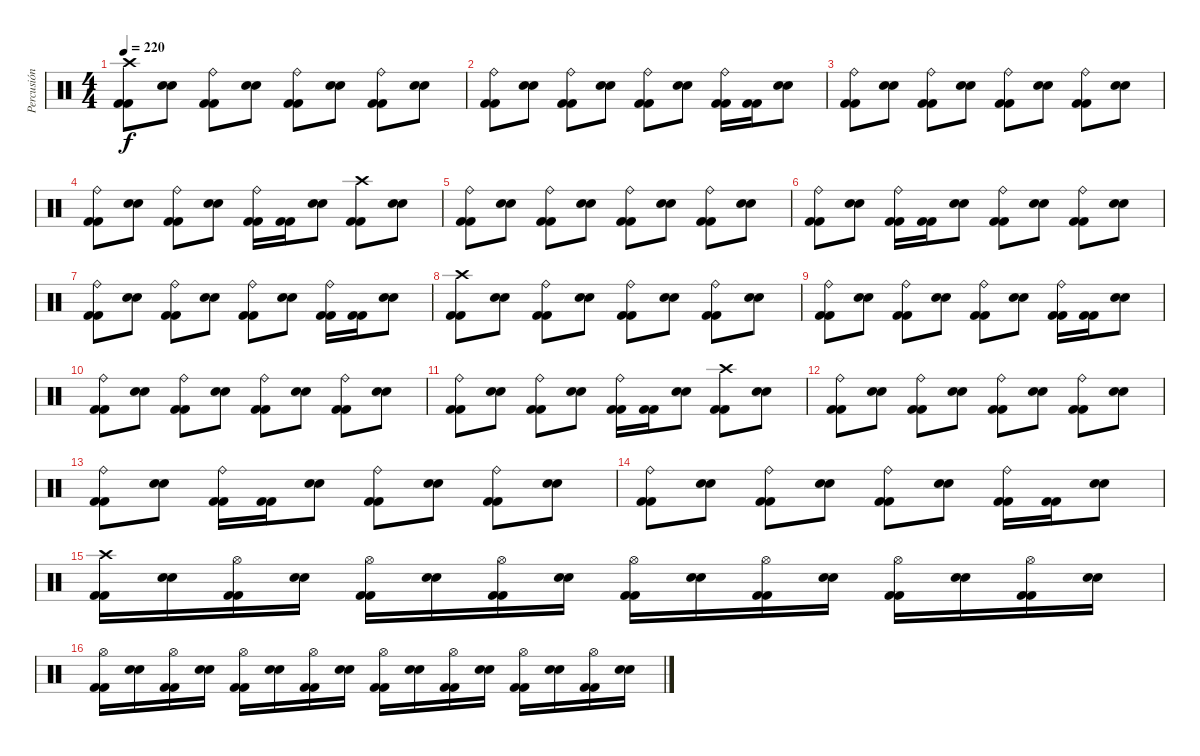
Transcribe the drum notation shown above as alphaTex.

\track ("Percusión" "Percusión") {instrument percussion}
\staff {score}
\articulation defaults
\ts (4 4)
\tempo 220
\clef neutral
\ks c
("Kick (hit) 2" "Kick (hit) 2" "Crash high (hit)").8{dy f} ("Electric Snare (hit)" "Electric Snare (hit)").8 ("Kick (hit) 2" "Kick (hit) 2" "Ride (bell)").8 ("Electric Snare (hit)" "Electric Snare (hit)").8 ("Kick (hit) 2" "Kick (hit) 2" "Ride (bell)").8 ("Electric Snare (hit)" "Electric Snare (hit)").8 ("Kick (hit) 2" "Kick (hit) 2" "Ride (bell)").8 ("Electric Snare (hit)" "Electric Snare (hit)").8 |
("Kick (hit) 2" "Kick (hit) 2" "Ride (bell)").8 ("Electric Snare (hit)" "Electric Snare (hit)").8 ("Kick (hit) 2" "Kick (hit) 2" "Ride (bell)").8 ("Electric Snare (hit)" "Electric Snare (hit)").8 ("Kick (hit) 2" "Kick (hit) 2" "Ride (bell)").8 ("Electric Snare (hit)" "Electric Snare (hit)").8 ("Kick (hit) 2" "Kick (hit) 2" "Ride (bell)").16 ("Kick (hit) 2" "Kick (hit) 2").16 ("Electric Snare (hit)" "Electric Snare (hit)").8 |
("Kick (hit) 2" "Kick (hit) 2" "Ride (bell)").8 ("Electric Snare (hit)" "Electric Snare (hit)").8 ("Kick (hit) 2" "Kick (hit) 2" "Ride (bell)").8 ("Electric Snare (hit)" "Electric Snare (hit)").8 ("Kick (hit) 2" "Kick (hit) 2" "Ride (bell)").8 ("Electric Snare (hit)" "Electric Snare (hit)").8 ("Kick (hit) 2" "Kick (hit) 2" "Ride (bell)").8 ("Electric Snare (hit)" "Electric Snare (hit)").8 |
("Kick (hit) 2" "Kick (hit) 2" "Ride (bell)").8 ("Electric Snare (hit)" "Electric Snare (hit)").8 ("Kick (hit) 2" "Kick (hit) 2" "Ride (bell)").8 ("Electric Snare (hit)" "Electric Snare (hit)").8 ("Kick (hit) 2" "Kick (hit) 2" "Ride (bell)").16 ("Kick (hit) 2" "Kick (hit) 2").16 ("Electric Snare (hit)" "Electric Snare (hit)").8 ("Kick (hit) 2" "Kick (hit) 2" "Crash high (hit)").8 ("Electric Snare (hit)" "Electric Snare (hit)").8 |
("Kick (hit) 2" "Kick (hit) 2" "Ride (bell)").8 ("Electric Snare (hit)" "Electric Snare (hit)").8 ("Kick (hit) 2" "Kick (hit) 2" "Ride (bell)").8 ("Electric Snare (hit)" "Electric Snare (hit)").8 ("Kick (hit) 2" "Kick (hit) 2" "Ride (bell)").8 ("Electric Snare (hit)" "Electric Snare (hit)").8 ("Kick (hit) 2" "Kick (hit) 2" "Ride (bell)").8 ("Electric Snare (hit)" "Electric Snare (hit)").8 |
("Kick (hit) 2" "Kick (hit) 2" "Ride (bell)").8 ("Electric Snare (hit)" "Electric Snare (hit)").8 ("Kick (hit) 2" "Kick (hit) 2" "Ride (bell)").16 ("Kick (hit) 2" "Kick (hit) 2").16 ("Electric Snare (hit)" "Electric Snare (hit)").8 ("Kick (hit) 2" "Kick (hit) 2" "Ride (bell)").8 ("Electric Snare (hit)" "Electric Snare (hit)").8 ("Kick (hit) 2" "Kick (hit) 2" "Ride (bell)").8 ("Electric Snare (hit)" "Electric Snare (hit)").8 |
("Kick (hit) 2" "Kick (hit) 2" "Ride (bell)").8 ("Electric Snare (hit)" "Electric Snare (hit)").8 ("Kick (hit) 2" "Kick (hit) 2" "Ride (bell)").8 ("Electric Snare (hit)" "Electric Snare (hit)").8 ("Kick (hit) 2" "Kick (hit) 2" "Ride (bell)").8 ("Electric Snare (hit)" "Electric Snare (hit)").8 ("Kick (hit) 2" "Kick (hit) 2" "Ride (bell)").16 ("Kick (hit) 2" "Kick (hit) 2").16 ("Electric Snare (hit)" "Electric Snare (hit)").8 |
("Kick (hit) 2" "Kick (hit) 2" "Crash high (hit)").8 ("Electric Snare (hit)" "Electric Snare (hit)").8 ("Kick (hit) 2" "Kick (hit) 2" "Ride (bell)").8 ("Electric Snare (hit)" "Electric Snare (hit)").8 ("Kick (hit) 2" "Kick (hit) 2" "Ride (bell)").8 ("Electric Snare (hit)" "Electric Snare (hit)").8 ("Kick (hit) 2" "Kick (hit) 2" "Ride (bell)").8 ("Electric Snare (hit)" "Electric Snare (hit)").8 |
("Kick (hit) 2" "Kick (hit) 2" "Ride (bell)").8 ("Electric Snare (hit)" "Electric Snare (hit)").8 ("Kick (hit) 2" "Kick (hit) 2" "Ride (bell)").8 ("Electric Snare (hit)" "Electric Snare (hit)").8 ("Kick (hit) 2" "Kick (hit) 2" "Ride (bell)").8 ("Electric Snare (hit)" "Electric Snare (hit)").8 ("Kick (hit) 2" "Kick (hit) 2" "Ride (bell)").16 ("Kick (hit) 2" "Kick (hit) 2").16 ("Electric Snare (hit)" "Electric Snare (hit)").8 |
("Kick (hit) 2" "Kick (hit) 2" "Ride (bell)").8 ("Electric Snare (hit)" "Electric Snare (hit)").8 ("Kick (hit) 2" "Kick (hit) 2" "Ride (bell)").8 ("Electric Snare (hit)" "Electric Snare (hit)").8 ("Kick (hit) 2" "Kick (hit) 2" "Ride (bell)").8 ("Electric Snare (hit)" "Electric Snare (hit)").8 ("Kick (hit) 2" "Kick (hit) 2" "Ride (bell)").8 ("Electric Snare (hit)" "Electric Snare (hit)").8 |
("Kick (hit) 2" "Kick (hit) 2" "Ride (bell)").8 ("Electric Snare (hit)" "Electric Snare (hit)").8 ("Kick (hit) 2" "Kick (hit) 2" "Ride (bell)").8 ("Electric Snare (hit)" "Electric Snare (hit)").8 ("Kick (hit) 2" "Kick (hit) 2" "Ride (bell)").16 ("Kick (hit) 2" "Kick (hit) 2").16 ("Electric Snare (hit)" "Electric Snare (hit)").8 ("Kick (hit) 2" "Kick (hit) 2" "Crash high (hit)").8 ("Electric Snare (hit)" "Electric Snare (hit)").8 |
("Kick (hit) 2" "Kick (hit) 2" "Ride (bell)").8 ("Electric Snare (hit)" "Electric Snare (hit)").8 ("Kick (hit) 2" "Kick (hit) 2" "Ride (bell)").8 ("Electric Snare (hit)" "Electric Snare (hit)").8 ("Kick (hit) 2" "Kick (hit) 2" "Ride (bell)").8 ("Electric Snare (hit)" "Electric Snare (hit)").8 ("Kick (hit) 2" "Kick (hit) 2" "Ride (bell)").8 ("Electric Snare (hit)" "Electric Snare (hit)").8 |
("Kick (hit) 2" "Kick (hit) 2" "Ride (bell)").8 ("Electric Snare (hit)" "Electric Snare (hit)").8 ("Kick (hit) 2" "Kick (hit) 2" "Ride (bell)").16 ("Kick (hit) 2" "Kick (hit) 2").16 ("Electric Snare (hit)" "Electric Snare (hit)").8 ("Kick (hit) 2" "Kick (hit) 2" "Ride (bell)").8 ("Electric Snare (hit)" "Electric Snare (hit)").8 ("Kick (hit) 2" "Kick (hit) 2" "Ride (bell)").8 ("Electric Snare (hit)" "Electric Snare (hit)").8 |
("Kick (hit) 2" "Kick (hit) 2" "Ride (bell)").8 ("Electric Snare (hit)" "Electric Snare (hit)").8 ("Kick (hit) 2" "Kick (hit) 2" "Ride (bell)").8 ("Electric Snare (hit)" "Electric Snare (hit)").8 ("Kick (hit) 2" "Kick (hit) 2" "Ride (bell)").8 ("Electric Snare (hit)" "Electric Snare (hit)").8 ("Kick (hit) 2" "Kick (hit) 2" "Ride (bell)").16 ("Kick (hit) 2" "Kick (hit) 2").16 ("Electric Snare (hit)" "Electric Snare (hit)").8 |
("Kick (hit) 2" "Kick (hit) 2" "Crash high (hit)").16 ("Electric Snare (hit)" "Electric Snare (hit)").16 ("Kick (hit) 2" "Kick (hit) 2" "Hi-Hat (open)").16 ("Electric Snare (hit)" "Electric Snare (hit)").16 ("Kick (hit) 2" "Kick (hit) 2" "Hi-Hat (open)").16 ("Electric Snare (hit)" "Electric Snare (hit)").16 ("Kick (hit) 2" "Kick (hit) 2" "Hi-Hat (open)").16 ("Electric Snare (hit)" "Electric Snare (hit)").16 ("Kick (hit) 2" "Kick (hit) 2" "Hi-Hat (open)").16 ("Electric Snare (hit)" "Electric Snare (hit)").16 ("Kick (hit) 2" "Kick (hit) 2" "Hi-Hat (open)").16 ("Electric Snare (hit)" "Electric Snare (hit)").16 ("Kick (hit) 2" "Kick (hit) 2" "Hi-Hat (open)").16 ("Electric Snare (hit)" "Electric Snare (hit)").16 ("Kick (hit) 2" "Kick (hit) 2" "Hi-Hat (open)").16 ("Electric Snare (hit)" "Electric Snare (hit)").16 |
("Kick (hit) 2" "Kick (hit) 2" "Hi-Hat (open)").16 ("Electric Snare (hit)" "Electric Snare (hit)").16 ("Kick (hit) 2" "Kick (hit) 2" "Hi-Hat (open)").16 ("Electric Snare (hit)" "Electric Snare (hit)").16 ("Kick (hit) 2" "Kick (hit) 2" "Hi-Hat (open)").16 ("Electric Snare (hit)" "Electric Snare (hit)").16 ("Kick (hit) 2" "Kick (hit) 2" "Hi-Hat (open)").16 ("Electric Snare (hit)" "Electric Snare (hit)").16 ("Kick (hit) 2" "Kick (hit) 2" "Hi-Hat (open)").16 ("Electric Snare (hit)" "Electric Snare (hit)").16 ("Kick (hit) 2" "Kick (hit) 2" "Hi-Hat (open)").16 ("Electric Snare (hit)" "Electric Snare (hit)").16 ("Kick (hit) 2" "Kick (hit) 2" "Hi-Hat (open)").16 ("Electric Snare (hit)" "Electric Snare (hit)").16 ("Kick (hit) 2" "Kick (hit) 2" "Hi-Hat (open)").16 ("Electric Snare (hit)" "Electric Snare (hit)").16
